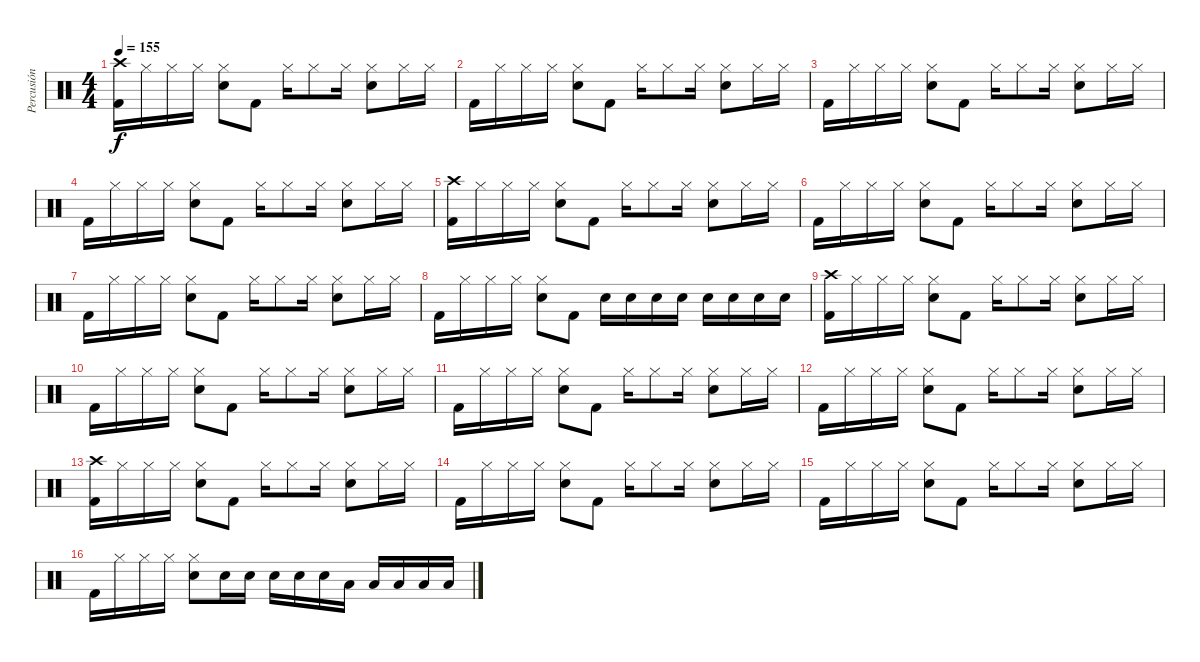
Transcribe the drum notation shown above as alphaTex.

\track ("Percusión" "Percusión") {instrument percussion}
\staff {score}
\articulation defaults
\ts (4 4)
\tempo 155
\clef neutral
\ks c
("Crash high (hit)" "Kick (hit) 2").16{dy f} "Hi-Hat (closed)".16 "Hi-Hat (closed)".16 "Hi-Hat (closed)".16 ("Hi-Hat (closed)" "Snare (hit) 2").8 "Kick (hit) 2".8 "Hi-Hat (closed)".16 "Hi-Hat (closed)".8 "Hi-Hat (closed)".16 ("Hi-Hat (closed)" "Snare (hit) 2").8 "Hi-Hat (closed)".16 "Hi-Hat (closed)".16 |
"Kick (hit) 2".16 "Hi-Hat (closed)".16 "Hi-Hat (closed)".16 "Hi-Hat (closed)".16 ("Hi-Hat (closed)" "Snare (hit) 2").8 "Kick (hit) 2".8 "Hi-Hat (closed)".16 "Hi-Hat (closed)".8 "Hi-Hat (closed)".16 ("Hi-Hat (closed)" "Snare (hit) 2").8 "Hi-Hat (closed)".16 "Hi-Hat (closed)".16 |
"Kick (hit) 2".16 "Hi-Hat (closed)".16 "Hi-Hat (closed)".16 "Hi-Hat (closed)".16 ("Hi-Hat (closed)" "Snare (hit) 2").8 "Kick (hit) 2".8 "Hi-Hat (closed)".16 "Hi-Hat (closed)".8 "Hi-Hat (closed)".16 ("Hi-Hat (closed)" "Snare (hit) 2").8 "Hi-Hat (closed)".16 "Hi-Hat (closed)".16 |
"Kick (hit) 2".16 "Hi-Hat (closed)".16 "Hi-Hat (closed)".16 "Hi-Hat (closed)".16 ("Hi-Hat (closed)" "Snare (hit) 2").8 "Kick (hit) 2".8 "Hi-Hat (closed)".16 "Hi-Hat (closed)".8 "Hi-Hat (closed)".16 ("Hi-Hat (closed)" "Snare (hit) 2").8 "Hi-Hat (closed)".16 "Hi-Hat (closed)".16 |
("Crash high (hit)" "Kick (hit) 2").16 "Hi-Hat (closed)".16 "Hi-Hat (closed)".16 "Hi-Hat (closed)".16 ("Hi-Hat (closed)" "Snare (hit) 2").8 "Kick (hit) 2".8 "Hi-Hat (closed)".16 "Hi-Hat (closed)".8 "Hi-Hat (closed)".16 ("Hi-Hat (closed)" "Snare (hit) 2").8 "Hi-Hat (closed)".16 "Hi-Hat (closed)".16 |
"Kick (hit) 2".16 "Hi-Hat (closed)".16 "Hi-Hat (closed)".16 "Hi-Hat (closed)".16 ("Hi-Hat (closed)" "Snare (hit) 2").8 "Kick (hit) 2".8 "Hi-Hat (closed)".16 "Hi-Hat (closed)".8 "Hi-Hat (closed)".16 ("Hi-Hat (closed)" "Snare (hit) 2").8 "Hi-Hat (closed)".16 "Hi-Hat (closed)".16 |
"Kick (hit) 2".16 "Hi-Hat (closed)".16 "Hi-Hat (closed)".16 "Hi-Hat (closed)".16 ("Hi-Hat (closed)" "Snare (hit) 2").8 "Kick (hit) 2".8 "Hi-Hat (closed)".16 "Hi-Hat (closed)".8 "Hi-Hat (closed)".16 ("Hi-Hat (closed)" "Snare (hit) 2").8 "Hi-Hat (closed)".16 "Hi-Hat (closed)".16 |
"Kick (hit) 2".16 "Hi-Hat (closed)".16 "Hi-Hat (closed)".16 "Hi-Hat (closed)".16 ("Hi-Hat (closed)" "Snare (hit) 2").8 "Kick (hit) 2".8 "Snare (hit) 2".16 "Snare (hit) 2".16 "Snare (hit) 2".16 "Snare (hit) 2".16 "Snare (hit) 2".16 "Snare (hit) 2".16 "Snare (hit) 2".16 "Snare (hit) 2".16 |
("Crash high (hit)" "Kick (hit) 2").16 "Hi-Hat (closed)".16 "Hi-Hat (closed)".16 "Hi-Hat (closed)".16 ("Hi-Hat (closed)" "Snare (hit) 2").8 "Kick (hit) 2".8 "Hi-Hat (closed)".16 "Hi-Hat (closed)".8 "Hi-Hat (closed)".16 ("Hi-Hat (closed)" "Snare (hit) 2").8 "Hi-Hat (closed)".16 "Hi-Hat (closed)".16 |
"Kick (hit) 2".16 "Hi-Hat (closed)".16 "Hi-Hat (closed)".16 "Hi-Hat (closed)".16 ("Hi-Hat (closed)" "Snare (hit) 2").8 "Kick (hit) 2".8 "Hi-Hat (closed)".16 "Hi-Hat (closed)".8 "Hi-Hat (closed)".16 ("Hi-Hat (closed)" "Snare (hit) 2").8 "Hi-Hat (closed)".16 "Hi-Hat (closed)".16 |
"Kick (hit) 2".16 "Hi-Hat (closed)".16 "Hi-Hat (closed)".16 "Hi-Hat (closed)".16 ("Hi-Hat (closed)" "Snare (hit) 2").8 "Kick (hit) 2".8 "Hi-Hat (closed)".16 "Hi-Hat (closed)".8 "Hi-Hat (closed)".16 ("Hi-Hat (closed)" "Snare (hit) 2").8 "Hi-Hat (closed)".16 "Hi-Hat (closed)".16 |
"Kick (hit) 2".16 "Hi-Hat (closed)".16 "Hi-Hat (closed)".16 "Hi-Hat (closed)".16 ("Hi-Hat (closed)" "Snare (hit) 2").8 "Kick (hit) 2".8 "Hi-Hat (closed)".16 "Hi-Hat (closed)".8 "Hi-Hat (closed)".16 ("Hi-Hat (closed)" "Snare (hit) 2").8 "Hi-Hat (closed)".16 "Hi-Hat (closed)".16 |
("Crash high (hit)" "Kick (hit) 2").16 "Hi-Hat (closed)".16 "Hi-Hat (closed)".16 "Hi-Hat (closed)".16 ("Hi-Hat (closed)" "Snare (hit) 2").8 "Kick (hit) 2".8 "Hi-Hat (closed)".16 "Hi-Hat (closed)".8 "Hi-Hat (closed)".16 ("Hi-Hat (closed)" "Snare (hit) 2").8 "Hi-Hat (closed)".16 "Hi-Hat (closed)".16 |
"Kick (hit) 2".16 "Hi-Hat (closed)".16 "Hi-Hat (closed)".16 "Hi-Hat (closed)".16 ("Hi-Hat (closed)" "Snare (hit) 2").8 "Kick (hit) 2".8 "Hi-Hat (closed)".16 "Hi-Hat (closed)".8 "Hi-Hat (closed)".16 ("Hi-Hat (closed)" "Snare (hit) 2").8 "Hi-Hat (closed)".16 "Hi-Hat (closed)".16 |
"Kick (hit) 2".16 "Hi-Hat (closed)".16 "Hi-Hat (closed)".16 "Hi-Hat (closed)".16 ("Hi-Hat (closed)" "Snare (hit) 2").8 "Kick (hit) 2".8 "Hi-Hat (closed)".16 "Hi-Hat (closed)".8 "Hi-Hat (closed)".16 ("Hi-Hat (closed)" "Snare (hit) 2").8 "Hi-Hat (closed)".16 "Hi-Hat (closed)".16 |
"Kick (hit) 2".16 "Hi-Hat (closed)".16 "Hi-Hat (closed)".16 "Hi-Hat (closed)".16 ("Hi-Hat (closed)" "Snare (hit) 2").8 "Snare (hit) 2".16 "Snare (hit) 2".16 "Snare (hit) 2".16 "Snare (hit) 2".16 "Snare (hit) 2".16 "Low Tom (hit)".16 "Low Tom (hit)".16 "Low Tom (hit)".16 "Low Tom (hit)".16 "Low Tom (hit)".16
